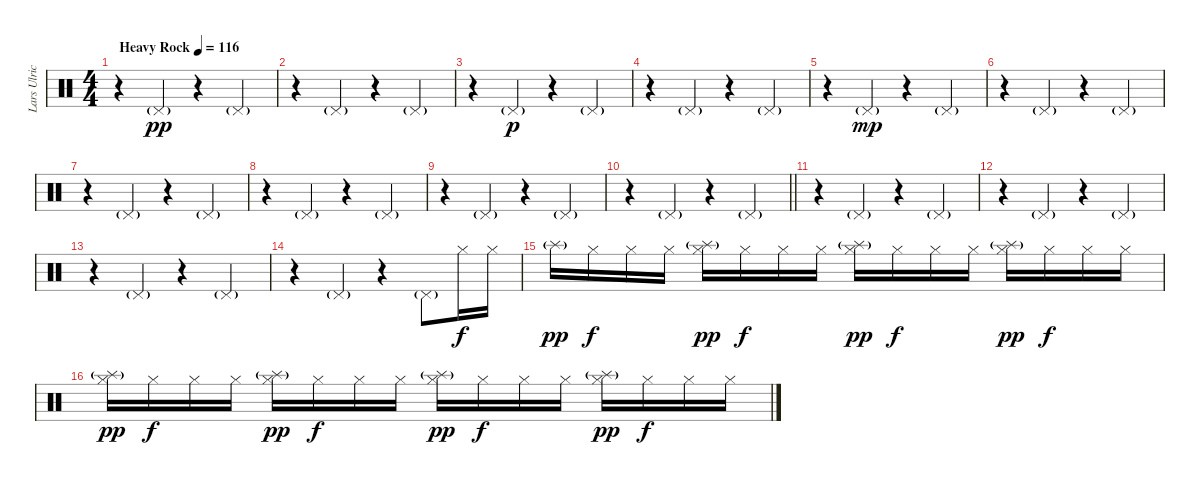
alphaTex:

\track ("Lars Ulrich - drums" "Lars Ulric") {instrument percussion}
\staff {score}
\articulation defaults
\ts (4 4)
\tempo (116 "Heavy Rock")
\clef neutral
\ks c
r.4{dy pp} "Pedal Hi-Hat (hit)"{g}.4 r.4 "Pedal Hi-Hat (hit)"{g}.4 |
r.4 "Pedal Hi-Hat (hit)"{g}.4 r.4 "Pedal Hi-Hat (hit)"{g}.4 |
r.4 "Pedal Hi-Hat (hit)"{g}.4{dy p} r.4 "Pedal Hi-Hat (hit)"{g}.4 |
r.4 "Pedal Hi-Hat (hit)"{g}.4 r.4 "Pedal Hi-Hat (hit)"{g}.4 |
r.4 "Pedal Hi-Hat (hit)"{g}.4{dy mp} r.4 "Pedal Hi-Hat (hit)"{g}.4 |
r.4 "Pedal Hi-Hat (hit)"{g}.4 r.4 "Pedal Hi-Hat (hit)"{g}.4 |
r.4 "Pedal Hi-Hat (hit)"{g}.4 r.4 "Pedal Hi-Hat (hit)"{g}.4 |
r.4 "Pedal Hi-Hat (hit)"{g}.4 r.4 "Pedal Hi-Hat (hit)"{g}.4 |
r.4 "Pedal Hi-Hat (hit)"{g}.4 r.4 "Pedal Hi-Hat (hit)"{g}.4 |
\barLineRight lightlight
r.4 "Pedal Hi-Hat (hit)"{g}.4 r.4 "Pedal Hi-Hat (hit)"{g}.4 |
\section ("" "")
r.4 "Pedal Hi-Hat (hit)"{g}.4 r.4 "Pedal Hi-Hat (hit)"{g}.4 |
r.4 "Pedal Hi-Hat (hit)"{g}.4 r.4 "Pedal Hi-Hat (hit)"{g}.4 |
r.4 "Pedal Hi-Hat (hit)"{g}.4 r.4 "Pedal Hi-Hat (hit)"{g}.4 |
r.4 "Pedal Hi-Hat (hit)"{g}.4 r.4 "Pedal Hi-Hat (hit)"{g}.8 "Hi-Hat (closed)".16{dy f} "Hi-Hat (closed)".16 |
"Splash (hit)"{g}.16{dy pp} "Hi-Hat (closed)".16{dy f} "Hi-Hat (closed)".16 "Hi-Hat (closed)".16 ("Splash (hit)"{g} "Hi-Hat (closed)").16{dy pp} "Hi-Hat (closed)".16{dy f} "Hi-Hat (closed)".16 "Hi-Hat (closed)".16 ("Splash (hit)"{g} "Hi-Hat (closed)").16{dy pp} "Hi-Hat (closed)".16{dy f} "Hi-Hat (closed)".16 "Hi-Hat (closed)".16 ("Splash (hit)"{g} "Hi-Hat (closed)").16{dy pp} "Hi-Hat (closed)".16{dy f} "Hi-Hat (closed)".16 "Hi-Hat (closed)".16 |
("Splash (hit)"{g} "Hi-Hat (closed)").16{dy pp} "Hi-Hat (closed)".16{dy f} "Hi-Hat (closed)".16 "Hi-Hat (closed)".16 ("Splash (hit)"{g} "Hi-Hat (closed)").16{dy pp} "Hi-Hat (closed)".16{dy f} "Hi-Hat (closed)".16 "Hi-Hat (closed)".16 ("Splash (hit)"{g} "Hi-Hat (closed)").16{dy pp} "Hi-Hat (closed)".16{dy f} "Hi-Hat (closed)".16 "Hi-Hat (closed)".16 ("Splash (hit)"{g} "Hi-Hat (closed)").16{dy pp} "Hi-Hat (closed)".16{dy f} "Hi-Hat (closed)".16 "Hi-Hat (closed)".16
